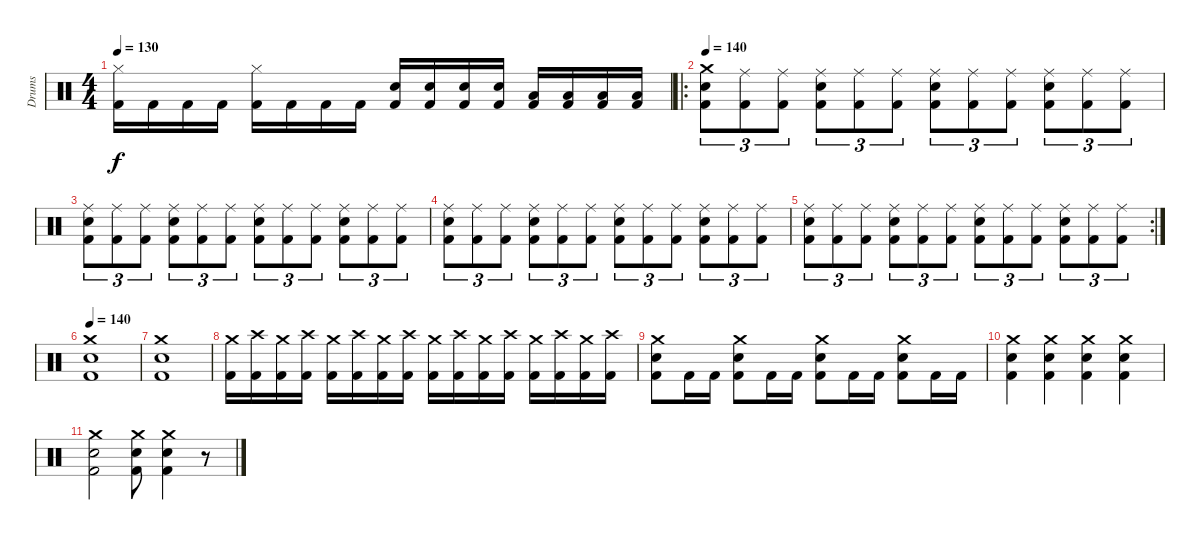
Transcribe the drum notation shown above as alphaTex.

\track ("Drums" "Drums") {instrument percussion}
\staff {score}
\articulation defaults
\ts (4 4)
\tempo 130
\clef neutral
\ks c
("Kick (hit) 2" "Hi-Hat (closed)").16{dy f} "Kick (hit) 2".16 "Kick (hit) 2".16 "Kick (hit) 2".16 ("Kick (hit) 2" "Hi-Hat (closed)").16 "Kick (hit) 2".16 "Kick (hit) 2".16 "Kick (hit) 2".16 ("Kick (hit) 2" "Snare (hit) 2").16 ("Kick (hit) 2" "Snare (hit) 2").16 ("Kick (hit) 2" "Snare (hit) 2").16 ("Kick (hit) 2" "Snare (hit) 2").16 ("Kick (hit) 2" "Low Tom (hit)").16 ("Kick (hit) 2" "Low Tom (hit)").16 ("Kick (hit) 2" "Low Tom (hit)").16 ("Kick (hit) 2" "Low Tom (hit)").16 |
\ro
\tempo 140
("Kick (hit) 2" "Snare (hit) 2" "Crash medium (hit)").8{tu (3 2)} ("Kick (hit) 2" "Ride (middle)").8{tu (3 2)} ("Kick (hit) 2" "Ride (middle)").8{tu (3 2)} ("Kick (hit) 2" "Snare (hit) 2" "Ride (middle)").8{tu (3 2)} ("Kick (hit) 2" "Ride (middle)").8{tu (3 2)} ("Kick (hit) 2" "Ride (middle)").8{tu (3 2)} ("Kick (hit) 2" "Snare (hit) 2" "Ride (middle)").8{tu (3 2)} ("Kick (hit) 2" "Ride (middle)").8{tu (3 2)} ("Kick (hit) 2" "Ride (middle)").8{tu (3 2)} ("Kick (hit) 2" "Snare (hit) 2" "Ride (middle)").8{tu (3 2)} ("Kick (hit) 2" "Ride (middle)").8{tu (3 2)} ("Kick (hit) 2" "Ride (middle)").8{tu (3 2)} |
("Kick (hit) 2" "Snare (hit) 2" "Ride (middle)").8{tu (3 2)} ("Kick (hit) 2" "Ride (middle)").8{tu (3 2)} ("Kick (hit) 2" "Ride (middle)").8{tu (3 2)} ("Kick (hit) 2" "Snare (hit) 2" "Ride (middle)").8{tu (3 2)} ("Kick (hit) 2" "Ride (middle)").8{tu (3 2)} ("Kick (hit) 2" "Ride (middle)").8{tu (3 2)} ("Kick (hit) 2" "Snare (hit) 2" "Ride (middle)").8{tu (3 2)} ("Kick (hit) 2" "Ride (middle)").8{tu (3 2)} ("Kick (hit) 2" "Ride (middle)").8{tu (3 2)} ("Kick (hit) 2" "Snare (hit) 2" "Ride (middle)").8{tu (3 2)} ("Kick (hit) 2" "Ride (middle)").8{tu (3 2)} ("Kick (hit) 2" "Ride (middle)").8{tu (3 2)} |
("Kick (hit) 2" "Snare (hit) 2" "Ride (middle)").8{tu (3 2)} ("Kick (hit) 2" "Ride (middle)").8{tu (3 2)} ("Kick (hit) 2" "Ride (middle)").8{tu (3 2)} ("Kick (hit) 2" "Snare (hit) 2" "Ride (middle)").8{tu (3 2)} ("Kick (hit) 2" "Ride (middle)").8{tu (3 2)} ("Kick (hit) 2" "Ride (middle)").8{tu (3 2)} ("Kick (hit) 2" "Snare (hit) 2" "Ride (middle)").8{tu (3 2)} ("Kick (hit) 2" "Ride (middle)").8{tu (3 2)} ("Kick (hit) 2" "Ride (middle)").8{tu (3 2)} ("Kick (hit) 2" "Snare (hit) 2" "Ride (middle)").8{tu (3 2)} ("Kick (hit) 2" "Ride (middle)").8{tu (3 2)} ("Kick (hit) 2" "Ride (middle)").8{tu (3 2)} |
\rc 2
("Kick (hit) 2" "Snare (hit) 2" "Ride (middle)").8{tu (3 2)} ("Kick (hit) 2" "Ride (middle)").8{tu (3 2)} ("Kick (hit) 2" "Ride (middle)").8{tu (3 2)} ("Kick (hit) 2" "Snare (hit) 2" "Ride (middle)").8{tu (3 2)} ("Kick (hit) 2" "Ride (middle)").8{tu (3 2)} ("Kick (hit) 2" "Ride (middle)").8{tu (3 2)} ("Kick (hit) 2" "Snare (hit) 2" "Ride (middle)").8{tu (3 2)} ("Kick (hit) 2" "Ride (middle)").8{tu (3 2)} ("Kick (hit) 2" "Ride (middle)").8{tu (3 2)} ("Kick (hit) 2" "Snare (hit) 2" "Ride (middle)").8{tu (3 2)} ("Kick (hit) 2" "Ride (middle)").8{tu (3 2)} ("Kick (hit) 2" "Ride (middle)").8{tu (3 2)} |
\tempo 140
("Kick (hit) 2" "Snare (hit) 2" "Crash medium (hit)").1 |
("Kick (hit) 2" "Snare (hit) 2" "Crash medium (hit)").1 |
("Kick (hit) 2" "Crash medium (hit)").16 ("Kick (hit) 2" "Crash high (hit)").16 ("Kick (hit) 2" "Crash medium (hit)").16 ("Kick (hit) 2" "Crash high (hit)").16 ("Kick (hit) 2" "Crash medium (hit)").16 ("Kick (hit) 2" "Crash high (hit)").16 ("Kick (hit) 2" "Crash medium (hit)").16 ("Kick (hit) 2" "Crash high (hit)").16 ("Kick (hit) 2" "Crash medium (hit)").16 ("Kick (hit) 2" "Crash high (hit)").16 ("Kick (hit) 2" "Crash medium (hit)").16 ("Kick (hit) 2" "Crash high (hit)").16 ("Kick (hit) 2" "Crash medium (hit)").16 ("Kick (hit) 2" "Crash high (hit)").16 ("Kick (hit) 2" "Crash medium (hit)").16 ("Kick (hit) 2" "Crash high (hit)").16 |
("Kick (hit) 2" "Snare (hit) 2" "Crash medium (hit)").8 "Kick (hit) 2".16 "Kick (hit) 2".16 ("Kick (hit) 2" "Snare (hit) 2" "Crash medium (hit)").8 "Kick (hit) 2".16 "Kick (hit) 2".16 ("Kick (hit) 2" "Snare (hit) 2" "Crash medium (hit)").8 "Kick (hit) 2".16 "Kick (hit) 2".16 ("Kick (hit) 2" "Snare (hit) 2" "Crash medium (hit)").8 "Kick (hit) 2".16 "Kick (hit) 2".16 |
("Kick (hit) 2" "Snare (hit) 2" "Crash medium (hit)").4 ("Kick (hit) 2" "Snare (hit) 2" "Crash medium (hit)").4 ("Kick (hit) 2" "Snare (hit) 2" "Crash medium (hit)").4 ("Kick (hit) 2" "Snare (hit) 2" "Crash medium (hit)").4 |
("Kick (hit) 2" "Snare (hit) 2" "Crash medium (hit)").2 ("Kick (hit) 2" "Snare (hit) 2" "Crash medium (hit)").8 ("Kick (hit) 2" "Snare (hit) 2" "Crash medium (hit)").4 r.8
